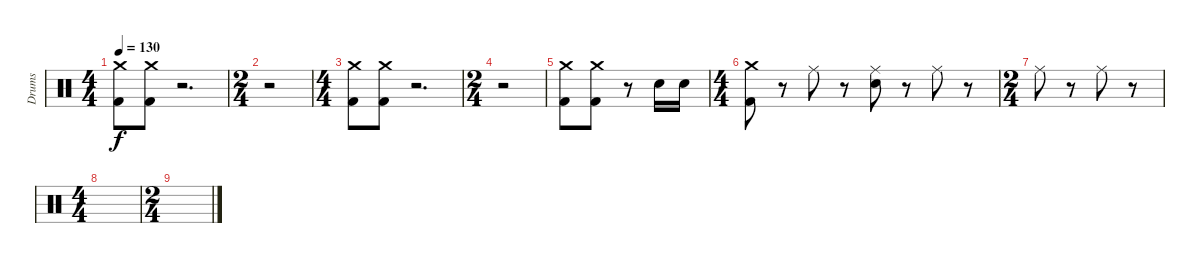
\track ("Drums" "Drums") {instrument percussion}
\staff {score}
\articulation defaults
\ts (4 4)
\tempo 130
\clef neutral
\ks c
("Kick (hit) 2" "Crash medium (hit)").8{dy f} ("Kick (hit) 2" "Crash medium (hit)").8 r.2{d} |
\ts (2 4)
r.2 |
\ts (4 4)
("Kick (hit) 2" "Crash medium (hit)").8 ("Kick (hit) 2" "Crash medium (hit)").8 r.2{d} |
\ts (2 4)
r.2 |
("Kick (hit) 2" "Crash medium (hit)").8 ("Kick (hit) 2" "Crash medium (hit)").8 r.8 "Electric Snare (hit)".16 "Electric Snare (hit)".16 |
\ts (4 4)
("Kick (hit) 2" "Crash medium (hit)").8 r.8 "Ride (middle)".8 r.8 ("Ride (middle)" "Electric Snare (hit)").8 r.8 "Ride (middle)".8 r.8 |
\ts (2 4)
"Ride (middle)".8 r.8 "Ride (middle)".8 r.8 |
\ts (4 4)
|
\ts (2 4)
